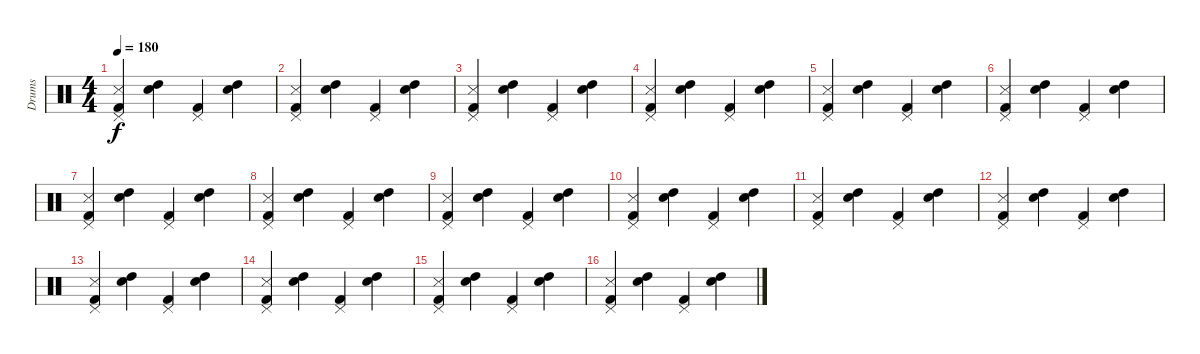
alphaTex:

\track ("Drums" "Drums") {instrument percussion}
\staff {score}
\articulation defaults
\ts (4 4)
\tempo 180
\clef neutral
\ks c
("Kick (hit) 2" "Pedal Hi-Hat (hit)" "Snare (side stick) 3").4{dy f} ("Snare (hit) 2" "High Tom (hit)").4 ("Kick (hit) 2" "Pedal Hi-Hat (hit)").4 ("Snare (hit) 2" "High Tom (hit)").4 |
("Kick (hit) 2" "Pedal Hi-Hat (hit)" "Snare (side stick) 3").4 ("Snare (hit) 2" "High Tom (hit)").4 ("Kick (hit) 2" "Pedal Hi-Hat (hit)").4 ("Snare (hit) 2" "High Tom (hit)").4 |
("Kick (hit) 2" "Pedal Hi-Hat (hit)" "Snare (side stick) 3").4 ("Snare (hit) 2" "High Tom (hit)").4 ("Kick (hit) 2" "Pedal Hi-Hat (hit)").4 ("Snare (hit) 2" "High Tom (hit)").4 |
("Kick (hit) 2" "Pedal Hi-Hat (hit)" "Snare (side stick) 3").4 ("Snare (hit) 2" "High Tom (hit)").4 ("Kick (hit) 2" "Pedal Hi-Hat (hit)").4 ("Snare (hit) 2" "High Tom (hit)").4 |
("Kick (hit) 2" "Pedal Hi-Hat (hit)" "Snare (side stick) 3").4 ("Snare (hit) 2" "High Tom (hit)").4 ("Kick (hit) 2" "Pedal Hi-Hat (hit)").4 ("Snare (hit) 2" "High Tom (hit)").4 |
("Kick (hit) 2" "Pedal Hi-Hat (hit)" "Snare (side stick) 3").4 ("Snare (hit) 2" "High Tom (hit)").4 ("Kick (hit) 2" "Pedal Hi-Hat (hit)").4 ("Snare (hit) 2" "High Tom (hit)").4 |
("Kick (hit) 2" "Pedal Hi-Hat (hit)" "Snare (side stick) 3").4 ("Snare (hit) 2" "High Tom (hit)").4 ("Kick (hit) 2" "Pedal Hi-Hat (hit)").4 ("Snare (hit) 2" "High Tom (hit)").4 |
("Kick (hit) 2" "Pedal Hi-Hat (hit)" "Snare (side stick) 3").4 ("Snare (hit) 2" "High Tom (hit)").4 ("Kick (hit) 2" "Pedal Hi-Hat (hit)").4 ("Snare (hit) 2" "High Tom (hit)").4 |
("Kick (hit) 2" "Pedal Hi-Hat (hit)" "Snare (side stick) 3").4 ("Snare (hit) 2" "High Tom (hit)").4 ("Kick (hit) 2" "Pedal Hi-Hat (hit)").4 ("Snare (hit) 2" "High Tom (hit)").4 |
("Kick (hit) 2" "Pedal Hi-Hat (hit)" "Snare (side stick) 3").4 ("Snare (hit) 2" "High Tom (hit)").4 ("Kick (hit) 2" "Pedal Hi-Hat (hit)").4 ("Snare (hit) 2" "High Tom (hit)").4 |
("Kick (hit) 2" "Pedal Hi-Hat (hit)" "Snare (side stick) 3").4 ("Snare (hit) 2" "High Tom (hit)").4 ("Kick (hit) 2" "Pedal Hi-Hat (hit)").4 ("Snare (hit) 2" "High Tom (hit)").4 |
("Kick (hit) 2" "Pedal Hi-Hat (hit)" "Snare (side stick) 3").4 ("Snare (hit) 2" "High Tom (hit)").4 ("Kick (hit) 2" "Pedal Hi-Hat (hit)").4 ("Snare (hit) 2" "High Tom (hit)").4 |
("Kick (hit) 2" "Pedal Hi-Hat (hit)" "Snare (side stick) 3").4 ("Snare (hit) 2" "High Tom (hit)").4 ("Kick (hit) 2" "Pedal Hi-Hat (hit)").4 ("Snare (hit) 2" "High Tom (hit)").4 |
("Kick (hit) 2" "Pedal Hi-Hat (hit)" "Snare (side stick) 3").4 ("Snare (hit) 2" "High Tom (hit)").4 ("Kick (hit) 2" "Pedal Hi-Hat (hit)").4 ("Snare (hit) 2" "High Tom (hit)").4 |
("Kick (hit) 2" "Pedal Hi-Hat (hit)" "Snare (side stick) 3").4 ("Snare (hit) 2" "High Tom (hit)").4 ("Kick (hit) 2" "Pedal Hi-Hat (hit)").4 ("Snare (hit) 2" "High Tom (hit)").4 |
("Kick (hit) 2" "Pedal Hi-Hat (hit)" "Snare (side stick) 3").4 ("Snare (hit) 2" "High Tom (hit)").4 ("Kick (hit) 2" "Pedal Hi-Hat (hit)").4 ("Snare (hit) 2" "High Tom (hit)").4
